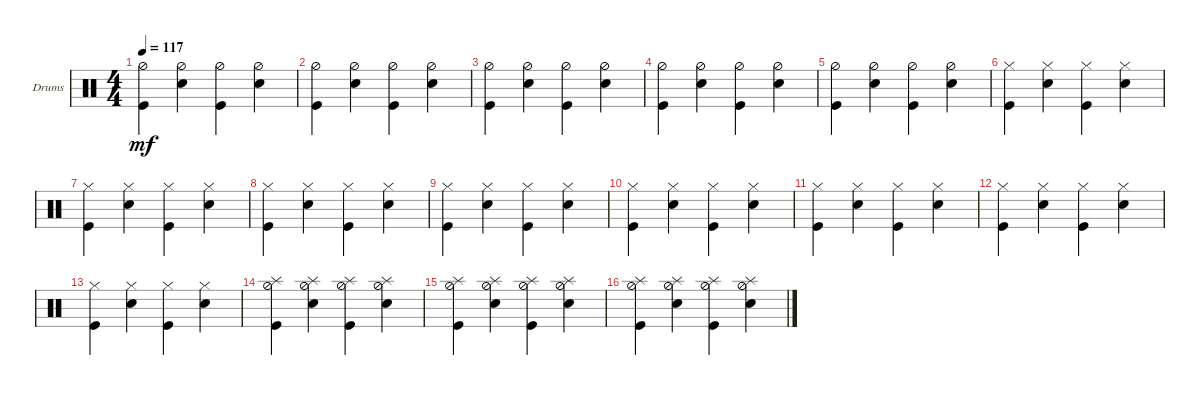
\defaultSystemsLayout 4
\bracketExtendMode groupsimilarinstruments
\firstSystemTrackNameOrientation horizontal
\otherSystemsTrackNameOrientation horizontal
\track ("Drumkit" "Drums") {instrument percussion}
\staff {score}
\articulation defaults
\ts (4 4)
\tempo 117
\clef neutral
\ks c
("Kick (hit)" "Hi-Hat (half)").4{dy mf} ("Snare (hit) 2" "Hi-Hat (half)").4 ("Kick (hit)" "Hi-Hat (half)").4 ("Snare (hit) 2" "Hi-Hat (half)").4 |
("Kick (hit)" "Hi-Hat (half)").4 ("Snare (hit) 2" "Hi-Hat (half)").4 ("Kick (hit)" "Hi-Hat (half)").4 ("Snare (hit) 2" "Hi-Hat (half)").4 |
("Kick (hit)" "Hi-Hat (half)").4 ("Snare (hit) 2" "Hi-Hat (half)").4 ("Kick (hit)" "Hi-Hat (half)").4 ("Snare (hit) 2" "Hi-Hat (half)").4 |
("Kick (hit)" "Hi-Hat (half)").4 ("Snare (hit) 2" "Hi-Hat (half)").4 ("Kick (hit)" "Hi-Hat (half)").4 ("Snare (hit) 2" "Hi-Hat (half)").4 |
("Kick (hit)" "Hi-Hat (half)").4 ("Snare (hit) 2" "Hi-Hat (half)").4 ("Kick (hit)" "Hi-Hat (half)").4 ("Snare (hit) 2" "Hi-Hat (half)").4 |
("Kick (hit)" "Hi-Hat (closed)").4 ("Snare (hit) 2" "Hi-Hat (closed)").4 ("Kick (hit)" "Hi-Hat (closed)").4 ("Snare (hit) 2" "Hi-Hat (closed)").4 |
("Kick (hit)" "Hi-Hat (closed)").4 ("Snare (hit) 2" "Hi-Hat (closed)").4 ("Kick (hit)" "Hi-Hat (closed)").4 ("Snare (hit) 2" "Hi-Hat (closed)").4 |
("Kick (hit)" "Hi-Hat (closed)").4 ("Snare (hit) 2" "Hi-Hat (closed)").4 ("Kick (hit)" "Hi-Hat (closed)").4 ("Snare (hit) 2" "Hi-Hat (closed)").4 |
("Kick (hit)" "Hi-Hat (closed)").4 ("Snare (hit) 2" "Hi-Hat (closed)").4 ("Kick (hit)" "Hi-Hat (closed)").4 ("Snare (hit) 2" "Hi-Hat (closed)").4 |
("Kick (hit)" "Hi-Hat (closed)").4 ("Snare (hit) 2" "Hi-Hat (closed)").4 ("Kick (hit)" "Hi-Hat (closed)").4 ("Snare (hit) 2" "Hi-Hat (closed)").4 |
("Kick (hit)" "Hi-Hat (closed)").4 ("Snare (hit) 2" "Hi-Hat (closed)").4 ("Kick (hit)" "Hi-Hat (closed)").4 ("Snare (hit) 2" "Hi-Hat (closed)").4 |
("Kick (hit)" "Hi-Hat (closed)").4 ("Snare (hit) 2" "Hi-Hat (closed)").4 ("Kick (hit)" "Hi-Hat (closed)").4 ("Snare (hit) 2" "Hi-Hat (closed)").4 |
("Kick (hit)" "Hi-Hat (closed)").4 ("Snare (hit) 2" "Hi-Hat (closed)").4 ("Kick (hit)" "Hi-Hat (closed)").4 ("Snare (hit) 2" "Hi-Hat (closed)").4 |
("Kick (hit)" "Hi-Hat (half)" "Splash (hit)").4 ("Snare (hit) 2" "Hi-Hat (half)" "Splash (hit)").4 ("Kick (hit)" "Hi-Hat (half)" "Splash (hit)").4 ("Snare (hit) 2" "Hi-Hat (half)" "Splash (hit)").4 |
("Kick (hit)" "Hi-Hat (half)" "Splash (hit)").4 ("Snare (hit) 2" "Hi-Hat (half)" "Splash (hit)").4 ("Kick (hit)" "Hi-Hat (half)" "Splash (hit)").4 ("Snare (hit) 2" "Hi-Hat (half)" "Splash (hit)").4 |
("Kick (hit)" "Hi-Hat (half)" "Splash (hit)").4 ("Snare (hit) 2" "Hi-Hat (half)" "Splash (hit)").4 ("Kick (hit)" "Hi-Hat (half)" "Splash (hit)").4 ("Snare (hit) 2" "Hi-Hat (half)" "Splash (hit)").4
